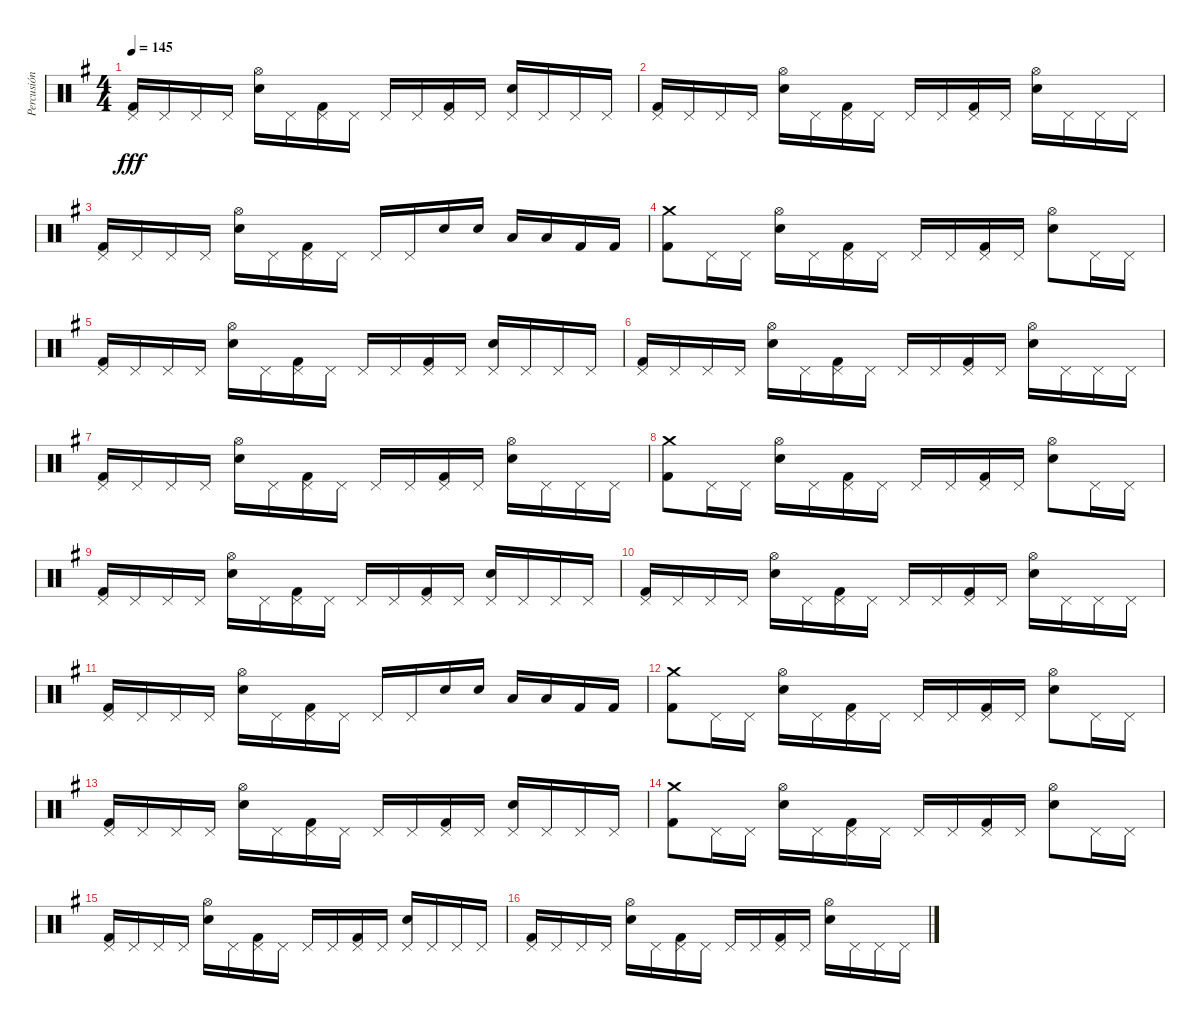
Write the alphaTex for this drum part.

\track ("Percusión" "Percusión") {instrument percussion}
\staff {score}
\articulation defaults
\ts (4 4)
\tempo 145
\clef neutral
\ks g
("Pedal Hi-Hat (hit)" "Kick (hit) 2").16{dy fff} "Pedal Hi-Hat (hit)".16 "Pedal Hi-Hat (hit)".16 "Pedal Hi-Hat (hit)".16 ("Hi-Hat (open)" "Electric Snare (hit)").16 "Pedal Hi-Hat (hit)".16 ("Pedal Hi-Hat (hit)" "Kick (hit) 2").16 "Pedal Hi-Hat (hit)".16 "Pedal Hi-Hat (hit)".16 "Pedal Hi-Hat (hit)".16 ("Pedal Hi-Hat (hit)" "Kick (hit) 2").16 "Pedal Hi-Hat (hit)".16 ("Pedal Hi-Hat (hit)" "Electric Snare (hit)").16 "Pedal Hi-Hat (hit)".16 "Pedal Hi-Hat (hit)".16 "Pedal Hi-Hat (hit)".16 |
("Pedal Hi-Hat (hit)" "Kick (hit) 2").16 "Pedal Hi-Hat (hit)".16 "Pedal Hi-Hat (hit)".16 "Pedal Hi-Hat (hit)".16 ("Hi-Hat (open)" "Electric Snare (hit)").16 "Pedal Hi-Hat (hit)".16 ("Pedal Hi-Hat (hit)" "Kick (hit) 2").16 "Pedal Hi-Hat (hit)".16 "Pedal Hi-Hat (hit)".16 "Pedal Hi-Hat (hit)".16 ("Pedal Hi-Hat (hit)" "Kick (hit) 2").16 "Pedal Hi-Hat (hit)".16 ("Hi-Hat (open)" "Electric Snare (hit)").16 "Pedal Hi-Hat (hit)".16 "Pedal Hi-Hat (hit)".16 "Pedal Hi-Hat (hit)".16 |
("Pedal Hi-Hat (hit)" "Kick (hit) 2").16 "Pedal Hi-Hat (hit)".16 "Pedal Hi-Hat (hit)".16 "Pedal Hi-Hat (hit)".16 ("Hi-Hat (open)" "Electric Snare (hit)").16 "Pedal Hi-Hat (hit)".16 ("Pedal Hi-Hat (hit)" "Kick (hit) 2").16 "Pedal Hi-Hat (hit)".16 "Pedal Hi-Hat (hit)".16 "Pedal Hi-Hat (hit)".16 "Electric Snare (hit)".16 "Electric Snare (hit)".16 "Low Tom (hit)".16 "Low Tom (hit)".16 "Kick (hit) 2".16 "Kick (hit) 2".16 |
("Crash medium (hit)" "Kick (hit) 2").8 "Pedal Hi-Hat (hit)".16 "Pedal Hi-Hat (hit)".16 ("Hi-Hat (open)" "Electric Snare (hit)").16 "Pedal Hi-Hat (hit)".16 ("Pedal Hi-Hat (hit)" "Kick (hit) 2").16 "Pedal Hi-Hat (hit)".16 "Pedal Hi-Hat (hit)".16 "Pedal Hi-Hat (hit)".16 ("Pedal Hi-Hat (hit)" "Kick (hit) 2").16 "Pedal Hi-Hat (hit)".16 ("Hi-Hat (open)" "Electric Snare (hit)").8 "Pedal Hi-Hat (hit)".16 "Pedal Hi-Hat (hit)".16 |
("Pedal Hi-Hat (hit)" "Kick (hit) 2").16 "Pedal Hi-Hat (hit)".16 "Pedal Hi-Hat (hit)".16 "Pedal Hi-Hat (hit)".16 ("Hi-Hat (open)" "Electric Snare (hit)").16 "Pedal Hi-Hat (hit)".16 ("Pedal Hi-Hat (hit)" "Kick (hit) 2").16 "Pedal Hi-Hat (hit)".16 "Pedal Hi-Hat (hit)".16 "Pedal Hi-Hat (hit)".16 ("Pedal Hi-Hat (hit)" "Kick (hit) 2").16 "Pedal Hi-Hat (hit)".16 ("Pedal Hi-Hat (hit)" "Electric Snare (hit)").16 "Pedal Hi-Hat (hit)".16 "Pedal Hi-Hat (hit)".16 "Pedal Hi-Hat (hit)".16 |
("Pedal Hi-Hat (hit)" "Kick (hit) 2").16 "Pedal Hi-Hat (hit)".16 "Pedal Hi-Hat (hit)".16 "Pedal Hi-Hat (hit)".16 ("Hi-Hat (open)" "Electric Snare (hit)").16 "Pedal Hi-Hat (hit)".16 ("Pedal Hi-Hat (hit)" "Kick (hit) 2").16 "Pedal Hi-Hat (hit)".16 "Pedal Hi-Hat (hit)".16 "Pedal Hi-Hat (hit)".16 ("Pedal Hi-Hat (hit)" "Kick (hit) 2").16 "Pedal Hi-Hat (hit)".16 ("Hi-Hat (open)" "Electric Snare (hit)").16 "Pedal Hi-Hat (hit)".16 "Pedal Hi-Hat (hit)".16 "Pedal Hi-Hat (hit)".16 |
("Pedal Hi-Hat (hit)" "Kick (hit) 2").16 "Pedal Hi-Hat (hit)".16 "Pedal Hi-Hat (hit)".16 "Pedal Hi-Hat (hit)".16 ("Hi-Hat (open)" "Electric Snare (hit)").16 "Pedal Hi-Hat (hit)".16 ("Pedal Hi-Hat (hit)" "Kick (hit) 2").16 "Pedal Hi-Hat (hit)".16 "Pedal Hi-Hat (hit)".16 "Pedal Hi-Hat (hit)".16 ("Pedal Hi-Hat (hit)" "Kick (hit) 2").16 "Pedal Hi-Hat (hit)".16 ("Hi-Hat (open)" "Electric Snare (hit)").16 "Pedal Hi-Hat (hit)".16 "Pedal Hi-Hat (hit)".16 "Pedal Hi-Hat (hit)".16 |
("Crash medium (hit)" "Kick (hit) 2").8 "Pedal Hi-Hat (hit)".16 "Pedal Hi-Hat (hit)".16 ("Hi-Hat (open)" "Electric Snare (hit)").16 "Pedal Hi-Hat (hit)".16 ("Pedal Hi-Hat (hit)" "Kick (hit) 2").16 "Pedal Hi-Hat (hit)".16 "Pedal Hi-Hat (hit)".16 "Pedal Hi-Hat (hit)".16 ("Pedal Hi-Hat (hit)" "Kick (hit) 2").16 "Pedal Hi-Hat (hit)".16 ("Hi-Hat (open)" "Electric Snare (hit)").8 "Pedal Hi-Hat (hit)".16 "Pedal Hi-Hat (hit)".16 |
("Pedal Hi-Hat (hit)" "Kick (hit) 2").16 "Pedal Hi-Hat (hit)".16 "Pedal Hi-Hat (hit)".16 "Pedal Hi-Hat (hit)".16 ("Hi-Hat (open)" "Electric Snare (hit)").16 "Pedal Hi-Hat (hit)".16 ("Pedal Hi-Hat (hit)" "Kick (hit) 2").16 "Pedal Hi-Hat (hit)".16 "Pedal Hi-Hat (hit)".16 "Pedal Hi-Hat (hit)".16 ("Pedal Hi-Hat (hit)" "Kick (hit) 2").16 "Pedal Hi-Hat (hit)".16 ("Pedal Hi-Hat (hit)" "Electric Snare (hit)").16 "Pedal Hi-Hat (hit)".16 "Pedal Hi-Hat (hit)".16 "Pedal Hi-Hat (hit)".16 |
("Pedal Hi-Hat (hit)" "Kick (hit) 2").16 "Pedal Hi-Hat (hit)".16 "Pedal Hi-Hat (hit)".16 "Pedal Hi-Hat (hit)".16 ("Hi-Hat (open)" "Electric Snare (hit)").16 "Pedal Hi-Hat (hit)".16 ("Pedal Hi-Hat (hit)" "Kick (hit) 2").16 "Pedal Hi-Hat (hit)".16 "Pedal Hi-Hat (hit)".16 "Pedal Hi-Hat (hit)".16 ("Pedal Hi-Hat (hit)" "Kick (hit) 2").16 "Pedal Hi-Hat (hit)".16 ("Hi-Hat (open)" "Electric Snare (hit)").16 "Pedal Hi-Hat (hit)".16 "Pedal Hi-Hat (hit)".16 "Pedal Hi-Hat (hit)".16 |
("Pedal Hi-Hat (hit)" "Kick (hit) 2").16 "Pedal Hi-Hat (hit)".16 "Pedal Hi-Hat (hit)".16 "Pedal Hi-Hat (hit)".16 ("Hi-Hat (open)" "Electric Snare (hit)").16 "Pedal Hi-Hat (hit)".16 ("Pedal Hi-Hat (hit)" "Kick (hit) 2").16 "Pedal Hi-Hat (hit)".16 "Pedal Hi-Hat (hit)".16 "Pedal Hi-Hat (hit)".16 "Electric Snare (hit)".16 "Electric Snare (hit)".16 "Low Tom (hit)".16 "Low Tom (hit)".16 "Kick (hit) 2".16 "Kick (hit) 2".16 |
("Crash medium (hit)" "Kick (hit) 2").8 "Pedal Hi-Hat (hit)".16 "Pedal Hi-Hat (hit)".16 ("Hi-Hat (open)" "Electric Snare (hit)").16 "Pedal Hi-Hat (hit)".16 ("Pedal Hi-Hat (hit)" "Kick (hit) 2").16 "Pedal Hi-Hat (hit)".16 "Pedal Hi-Hat (hit)".16 "Pedal Hi-Hat (hit)".16 ("Pedal Hi-Hat (hit)" "Kick (hit) 2").16 "Pedal Hi-Hat (hit)".16 ("Hi-Hat (open)" "Electric Snare (hit)").8 "Pedal Hi-Hat (hit)".16 "Pedal Hi-Hat (hit)".16 |
("Pedal Hi-Hat (hit)" "Kick (hit) 2").16 "Pedal Hi-Hat (hit)".16 "Pedal Hi-Hat (hit)".16 "Pedal Hi-Hat (hit)".16 ("Hi-Hat (open)" "Electric Snare (hit)").16 "Pedal Hi-Hat (hit)".16 ("Pedal Hi-Hat (hit)" "Kick (hit) 2").16 "Pedal Hi-Hat (hit)".16 "Pedal Hi-Hat (hit)".16 "Pedal Hi-Hat (hit)".16 ("Pedal Hi-Hat (hit)" "Kick (hit) 2").16 "Pedal Hi-Hat (hit)".16 ("Pedal Hi-Hat (hit)" "Electric Snare (hit)").16 "Pedal Hi-Hat (hit)".16 "Pedal Hi-Hat (hit)".16 "Pedal Hi-Hat (hit)".16 |
("Crash medium (hit)" "Kick (hit) 2").8 "Pedal Hi-Hat (hit)".16 "Pedal Hi-Hat (hit)".16 ("Hi-Hat (open)" "Electric Snare (hit)").16 "Pedal Hi-Hat (hit)".16 ("Pedal Hi-Hat (hit)" "Kick (hit) 2").16 "Pedal Hi-Hat (hit)".16 "Pedal Hi-Hat (hit)".16 "Pedal Hi-Hat (hit)".16 ("Pedal Hi-Hat (hit)" "Kick (hit) 2").16 "Pedal Hi-Hat (hit)".16 ("Hi-Hat (open)" "Electric Snare (hit)").8 "Pedal Hi-Hat (hit)".16 "Pedal Hi-Hat (hit)".16 |
("Pedal Hi-Hat (hit)" "Kick (hit) 2").16 "Pedal Hi-Hat (hit)".16 "Pedal Hi-Hat (hit)".16 "Pedal Hi-Hat (hit)".16 ("Hi-Hat (open)" "Electric Snare (hit)").16 "Pedal Hi-Hat (hit)".16 ("Pedal Hi-Hat (hit)" "Kick (hit) 2").16 "Pedal Hi-Hat (hit)".16 "Pedal Hi-Hat (hit)".16 "Pedal Hi-Hat (hit)".16 ("Pedal Hi-Hat (hit)" "Kick (hit) 2").16 "Pedal Hi-Hat (hit)".16 ("Pedal Hi-Hat (hit)" "Electric Snare (hit)").16 "Pedal Hi-Hat (hit)".16 "Pedal Hi-Hat (hit)".16 "Pedal Hi-Hat (hit)".16 |
("Pedal Hi-Hat (hit)" "Kick (hit) 2").16 "Pedal Hi-Hat (hit)".16 "Pedal Hi-Hat (hit)".16 "Pedal Hi-Hat (hit)".16 ("Hi-Hat (open)" "Electric Snare (hit)").16 "Pedal Hi-Hat (hit)".16 ("Pedal Hi-Hat (hit)" "Kick (hit) 2").16 "Pedal Hi-Hat (hit)".16 "Pedal Hi-Hat (hit)".16 "Pedal Hi-Hat (hit)".16 ("Pedal Hi-Hat (hit)" "Kick (hit) 2").16 "Pedal Hi-Hat (hit)".16 ("Hi-Hat (open)" "Electric Snare (hit)").16 "Pedal Hi-Hat (hit)".16 "Pedal Hi-Hat (hit)".16 "Pedal Hi-Hat (hit)".16
